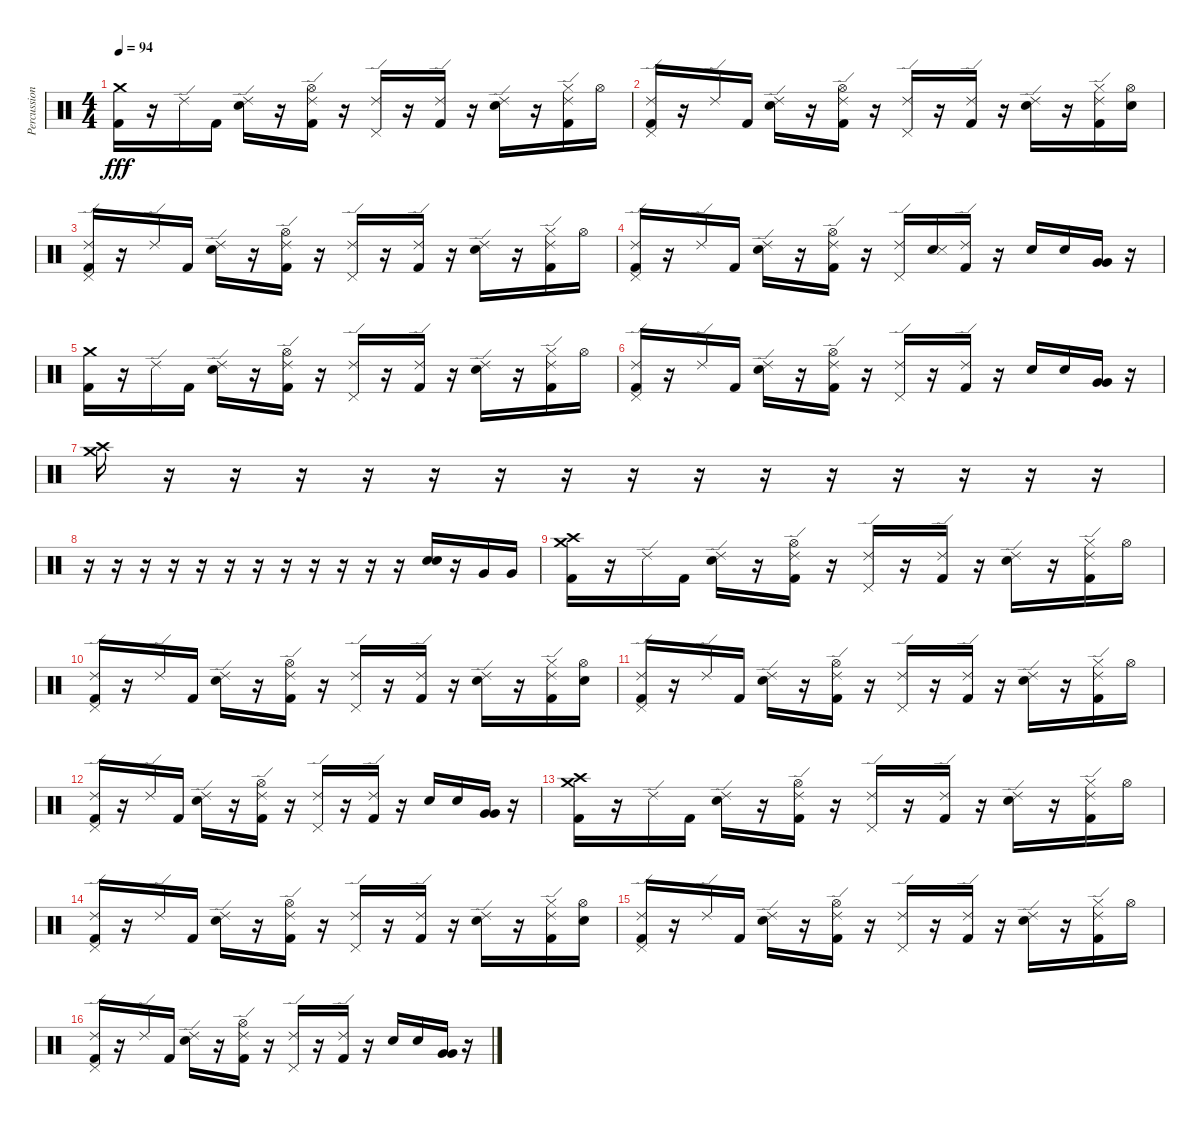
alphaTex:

\track ("Percussions" "Percussion") {instrument percussion}
\staff {score}
\articulation defaults
\ts (4 4)
\tempo 94
\clef neutral
\ks c
("Crash medium (hit)" "Kick (hit) 2").16{dy fff} r.16 "Ride (edge) 2".16 "Kick (hit) 2".16 ("Ride (edge) 2" "Electric Snare (hit)").16 r.16 ("Ride (edge) 2" "Hi-Hat (open)" "Kick (hit) 2").16 r.16 ("Ride (edge) 2" "Pedal Hi-Hat (hit)").16 r.16 ("Ride (edge) 2" "Kick (hit) 2").16 r.16 ("Ride (edge) 2" "Electric Snare (hit)").16 r.16 ("Ride (edge) 2" "Hi-Hat (closed)" "Kick (hit) 2").16 "Hi-Hat (open)".16 |
("Ride (edge) 2" "Pedal Hi-Hat (hit)" "Kick (hit) 2").16 r.16 "Ride (edge) 2".16 "Kick (hit) 2".16 ("Ride (edge) 2" "Electric Snare (hit)").16 r.16 ("Ride (edge) 2" "Hi-Hat (open)" "Kick (hit) 2").16 r.16 ("Ride (edge) 2" "Pedal Hi-Hat (hit)").16 r.16 ("Ride (edge) 2" "Kick (hit) 2").16 r.16 ("Ride (edge) 2" "Electric Snare (hit)").16 r.16 ("Ride (edge) 2" "Hi-Hat (closed)" "Kick (hit) 2").16 ("Hi-Hat (open)" "Electric Snare (hit)").16 |
("Ride (edge) 2" "Pedal Hi-Hat (hit)" "Kick (hit) 2").16 r.16 "Ride (edge) 2".16 "Kick (hit) 2".16 ("Ride (edge) 2" "Electric Snare (hit)").16 r.16 ("Ride (edge) 2" "Hi-Hat (open)" "Kick (hit) 2").16 r.16 ("Ride (edge) 2" "Pedal Hi-Hat (hit)").16 r.16 ("Ride (edge) 2" "Kick (hit) 2").16 r.16 ("Ride (edge) 2" "Electric Snare (hit)").16 r.16 ("Ride (edge) 2" "Hi-Hat (closed)" "Kick (hit) 2").16 "Hi-Hat (open)".16 |
("Ride (edge) 2" "Pedal Hi-Hat (hit)" "Kick (hit) 2").16 r.16 "Ride (edge) 2".16 "Kick (hit) 2".16 ("Ride (edge) 2" "Electric Snare (hit)").16 r.16 ("Ride (edge) 2" "Hi-Hat (open)" "Kick (hit) 2").16 r.16 ("Ride (edge) 2" "Pedal Hi-Hat (hit)").16 ("Electric Snare (hit)" "Snare (side stick) 3").16 ("Ride (edge) 2" "Kick (hit) 2").16 r.16 "Electric Snare (hit)".16 "Electric Snare (hit)".16 ("Very Low Tom (hit)" "Very Low Tom (hit)").16 r.16 |
("Crash medium (hit)" "Kick (hit) 2").16 r.16 "Ride (edge) 2".16 "Kick (hit) 2".16 ("Ride (edge) 2" "Electric Snare (hit)").16 r.16 ("Ride (edge) 2" "Hi-Hat (open)" "Kick (hit) 2").16 r.16 ("Ride (edge) 2" "Pedal Hi-Hat (hit)").16 r.16 ("Ride (edge) 2" "Kick (hit) 2").16 r.16 ("Ride (edge) 2" "Electric Snare (hit)").16 r.16 ("Ride (edge) 2" "Hi-Hat (closed)" "Kick (hit) 2").16 "Hi-Hat (open)".16 |
("Ride (edge) 2" "Pedal Hi-Hat (hit)" "Kick (hit) 2").16 r.16 "Ride (edge) 2".16 "Kick (hit) 2".16 ("Ride (edge) 2" "Electric Snare (hit)").16 r.16 ("Ride (edge) 2" "Hi-Hat (open)" "Kick (hit) 2").16 r.16 ("Ride (edge) 2" "Pedal Hi-Hat (hit)").16 r.16 ("Ride (edge) 2" "Kick (hit) 2").16 r.16 "Electric Snare (hit)".16 "Electric Snare (hit)".16 ("Very Low Tom (hit)" "Very Low Tom (hit)").16 r.16 |
("Crash high (hit)" "Crash medium (hit)").16 r.16 r.16 r.16 r.16 r.16 r.16 r.16 r.16 r.16 r.16 r.16 r.16 r.16 r.16 r.16 |
r.16 r.16 r.16 r.16 r.16 r.16 r.16 r.16 r.16 r.16 r.16 r.16 ("Electric Snare (hit)" "Electric Snare (hit)").16 r.16 "Very Low Tom (hit)".16 "Very Low Tom (hit)".16 |
("Crash medium (hit)" "Crash high (hit)" "Kick (hit) 2").16 r.16 "Ride (edge) 2".16 "Kick (hit) 2".16 ("Ride (edge) 2" "Electric Snare (hit)").16 r.16 ("Ride (edge) 2" "Hi-Hat (open)" "Kick (hit) 2").16 r.16 ("Ride (edge) 2" "Pedal Hi-Hat (hit)").16 r.16 ("Ride (edge) 2" "Kick (hit) 2").16 r.16 ("Ride (edge) 2" "Electric Snare (hit)").16 r.16 ("Ride (edge) 2" "Hi-Hat (closed)" "Kick (hit) 2").16 "Hi-Hat (open)".16 |
("Ride (edge) 2" "Pedal Hi-Hat (hit)" "Kick (hit) 2").16 r.16 "Ride (edge) 2".16 "Kick (hit) 2".16 ("Ride (edge) 2" "Electric Snare (hit)").16 r.16 ("Ride (edge) 2" "Hi-Hat (open)" "Kick (hit) 2").16 r.16 ("Ride (edge) 2" "Pedal Hi-Hat (hit)").16 r.16 ("Ride (edge) 2" "Kick (hit) 2").16 r.16 ("Ride (edge) 2" "Electric Snare (hit)").16 r.16 ("Ride (edge) 2" "Hi-Hat (closed)" "Kick (hit) 2").16 ("Hi-Hat (open)" "Electric Snare (hit)").16 |
("Ride (edge) 2" "Pedal Hi-Hat (hit)" "Kick (hit) 2").16 r.16 "Ride (edge) 2".16 "Kick (hit) 2".16 ("Ride (edge) 2" "Electric Snare (hit)").16 r.16 ("Ride (edge) 2" "Hi-Hat (open)" "Kick (hit) 2").16 r.16 ("Ride (edge) 2" "Pedal Hi-Hat (hit)").16 r.16 ("Ride (edge) 2" "Kick (hit) 2").16 r.16 ("Ride (edge) 2" "Electric Snare (hit)").16 r.16 ("Ride (edge) 2" "Hi-Hat (closed)" "Kick (hit) 2").16 "Hi-Hat (open)".16 |
("Ride (edge) 2" "Pedal Hi-Hat (hit)" "Kick (hit) 2").16 r.16 "Ride (edge) 2".16 "Kick (hit) 2".16 ("Ride (edge) 2" "Electric Snare (hit)").16 r.16 ("Ride (edge) 2" "Hi-Hat (open)" "Kick (hit) 2").16 r.16 ("Ride (edge) 2" "Pedal Hi-Hat (hit)").16 r.16 ("Ride (edge) 2" "Kick (hit) 2").16 r.16 "Electric Snare (hit)".16 "Electric Snare (hit)".16 ("Very Low Tom (hit)" "Very Low Tom (hit)").16 r.16 |
("Crash medium (hit)" "Crash high (hit)" "Kick (hit) 2").16 r.16 "Ride (edge) 2".16 "Kick (hit) 2".16 ("Ride (edge) 2" "Electric Snare (hit)").16 r.16 ("Ride (edge) 2" "Hi-Hat (open)" "Kick (hit) 2").16 r.16 ("Ride (edge) 2" "Pedal Hi-Hat (hit)").16 r.16 ("Ride (edge) 2" "Kick (hit) 2").16 r.16 ("Ride (edge) 2" "Electric Snare (hit)").16 r.16 ("Ride (edge) 2" "Hi-Hat (closed)" "Kick (hit) 2").16 "Hi-Hat (open)".16 |
("Ride (edge) 2" "Pedal Hi-Hat (hit)" "Kick (hit) 2").16 r.16 "Ride (edge) 2".16 "Kick (hit) 2".16 ("Ride (edge) 2" "Electric Snare (hit)").16 r.16 ("Ride (edge) 2" "Hi-Hat (open)" "Kick (hit) 2").16 r.16 ("Ride (edge) 2" "Pedal Hi-Hat (hit)").16 r.16 ("Ride (edge) 2" "Kick (hit) 2").16 r.16 ("Ride (edge) 2" "Electric Snare (hit)").16 r.16 ("Ride (edge) 2" "Hi-Hat (closed)" "Kick (hit) 2").16 ("Hi-Hat (open)" "Electric Snare (hit)").16 |
("Ride (edge) 2" "Pedal Hi-Hat (hit)" "Kick (hit) 2").16 r.16 "Ride (edge) 2".16 "Kick (hit) 2".16 ("Ride (edge) 2" "Electric Snare (hit)").16 r.16 ("Ride (edge) 2" "Hi-Hat (open)" "Kick (hit) 2").16 r.16 ("Ride (edge) 2" "Pedal Hi-Hat (hit)").16 r.16 ("Ride (edge) 2" "Kick (hit) 2").16 r.16 ("Ride (edge) 2" "Electric Snare (hit)").16 r.16 ("Ride (edge) 2" "Hi-Hat (closed)" "Kick (hit) 2").16 "Hi-Hat (open)".16 |
("Ride (edge) 2" "Pedal Hi-Hat (hit)" "Kick (hit) 2").16 r.16 "Ride (edge) 2".16 "Kick (hit) 2".16 ("Ride (edge) 2" "Electric Snare (hit)").16 r.16 ("Ride (edge) 2" "Hi-Hat (open)" "Kick (hit) 2").16 r.16 ("Ride (edge) 2" "Pedal Hi-Hat (hit)").16 r.16 ("Ride (edge) 2" "Kick (hit) 2").16 r.16 "Electric Snare (hit)".16 "Electric Snare (hit)".16 ("Very Low Tom (hit)" "Very Low Tom (hit)").16 r.16
